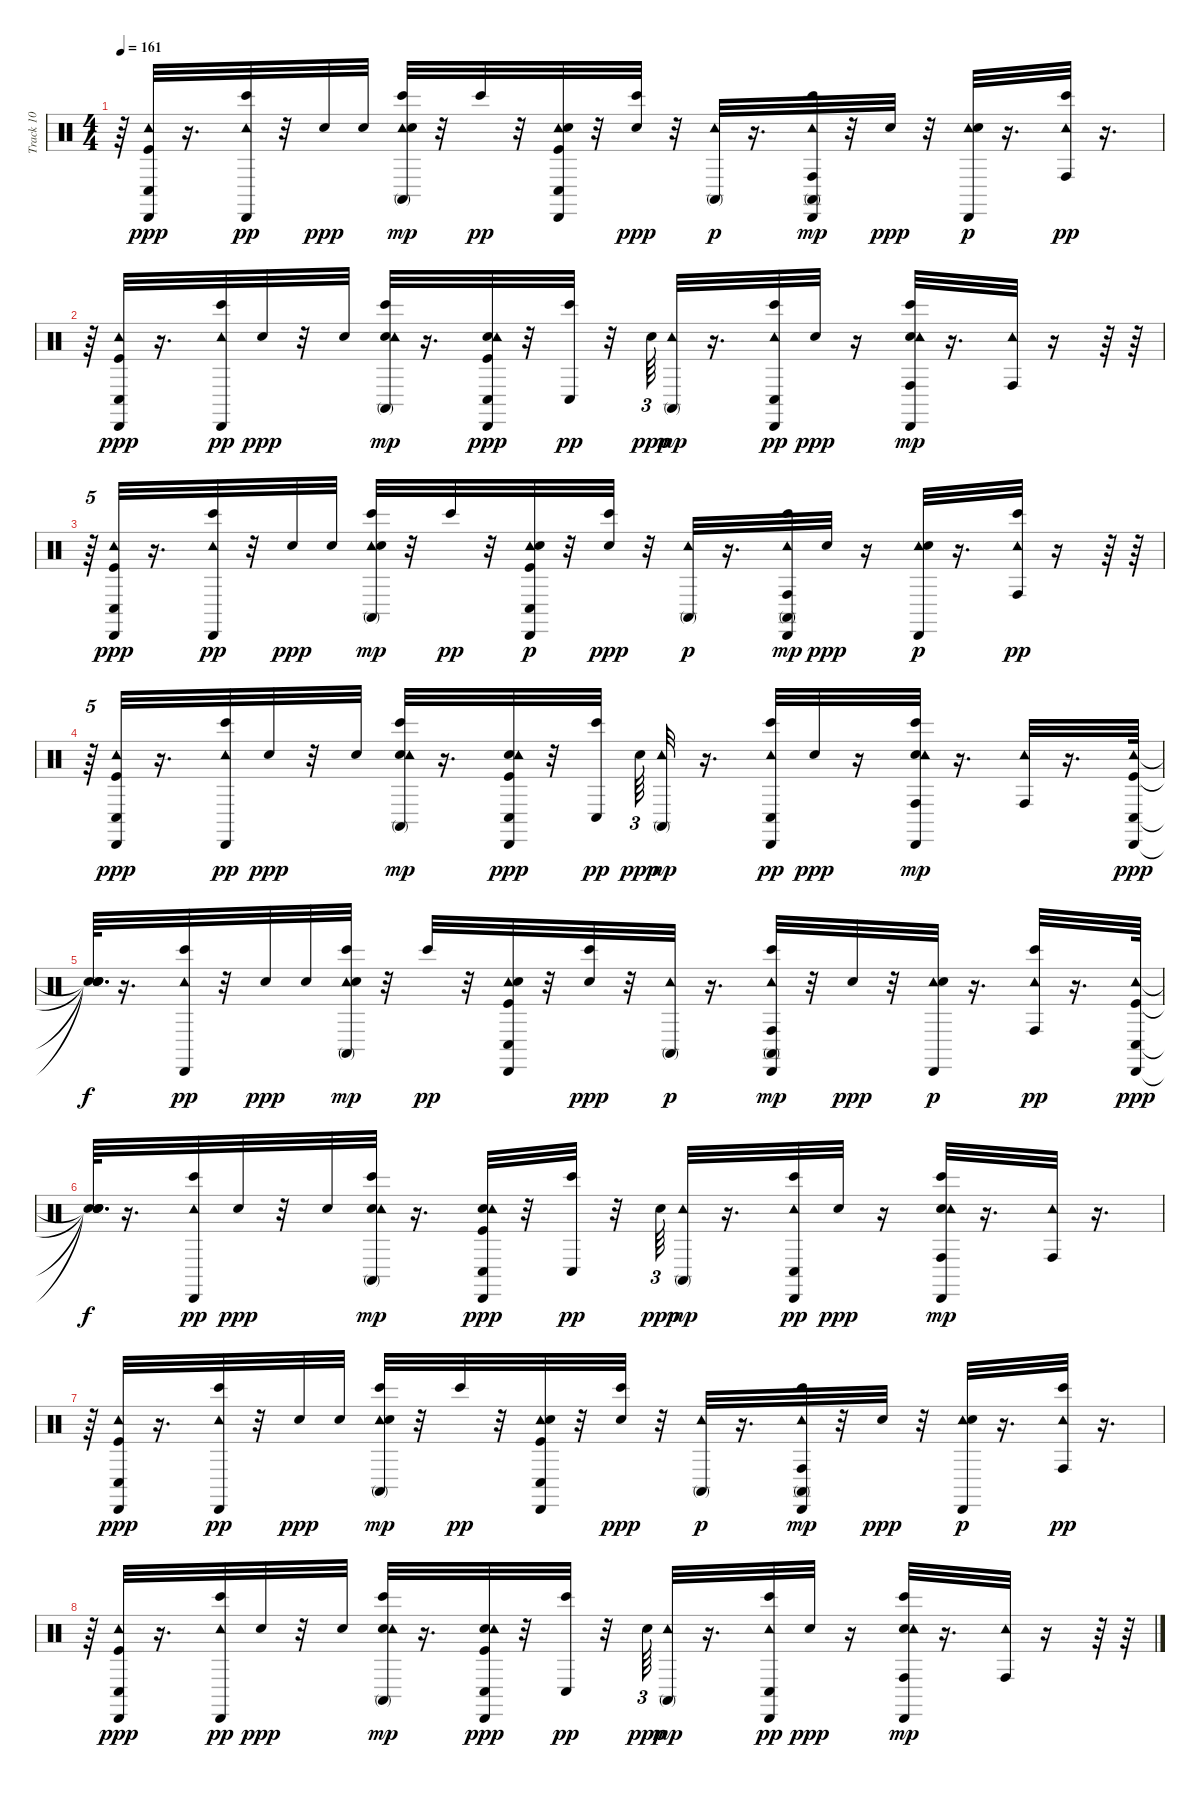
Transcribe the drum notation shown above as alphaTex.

\track ("Track 10" "Track 10") {instrument percussion}
\staff {score}
\articulation defaults
\ts (4 4)
\tempo 161
\clef neutral
\ks c
r.64{dy mp} ("Kick (hit)" "Tambourine (hit)" "Cabasa (hit)" "Conga low (hit)").32{dy ppp} r.16{d} ("Tambourine (hit)" "Cabasa (hit)" "Bongo High (hit)").32{dy pp} r.32 "Electric Snare (hit)".32{dy ppp} "Electric Snare (hit)".32 ("Tambourine (hit)" "Bongo High (hit)" "Conga high (mute)" "Electric Snare (hit)").32{dy mp} r.32 "Bongo High (hit)".32{dy pp} r.32 ("Tambourine (hit)" "Conga low (hit)" "Cabasa (hit)" "Kick (hit)" "Electric Snare (hit)").32 r.32 ("Bongo High (hit)" "Electric Snare (hit)").32{dy ppp} r.32 ("Tambourine (hit)" "Conga high (mute)").32{dy p} r.16{d} ("Tambourine (hit)" "Cabasa (hit)" "Bongo High (hit)" "Conga high (mute)" "Conga high (hit)").32{dy mp} r.32 "Electric Snare (hit)".32{dy ppp} r.32 ("Tambourine (hit)" "Cabasa (hit)" "Electric Snare (hit)").32{dy p} r.16{d} ("Tambourine (hit)" "Conga high (hit)" "Bongo High (hit)").32{dy pp} r.16{d} |
r.64 ("Kick (hit)" "Tambourine (hit)" "Cabasa (hit)" "Conga low (hit)").32{dy ppp} r.16{d} ("Tambourine (hit)" "Cabasa (hit)" "Bongo High (hit)").32{dy pp} "Electric Snare (hit)".32{dy ppp} r.32 "Electric Snare (hit)".32 ("Electric Snare (hit)" "Tambourine (hit)" "Bongo High (hit)" "Conga high (mute)").32{dy mp} r.16{d} ("Kick (hit)" "Electric Snare (hit)" "Tambourine (hit)" "Cabasa (hit)" "Conga low (hit)").32{dy ppp} r.32 ("Bongo High (hit)" "Conga low (hit)").32{dy pp} r.32 "Electric Snare (hit)".64{tu (3 2) dy ppp} ("Tambourine (hit)" "Conga high (mute)").32{dy mp} r.16{d} ("Bongo High (hit)" "Tambourine (hit)" "Cabasa (hit)" "Conga low (hit)").32{dy pp} "Electric Snare (hit)".32{dy ppp} r.16 ("Electric Snare (hit)" "Bongo High (hit)" "Tambourine (hit)" "Cabasa (hit)" "Conga high (hit)").32{dy mp} r.16{d} ("Tambourine (hit)" "Conga high (hit)").32 r.16 r.64 r.64 |
r.64{tu (5 4)} ("Kick (hit)" "Tambourine (hit)" "Cabasa (hit)" "Conga low (hit)").32{dy ppp} r.16{d} ("Tambourine (hit)" "Cabasa (hit)" "Bongo High (hit)").32{dy pp} r.32 "Electric Snare (hit)".32{dy ppp} "Electric Snare (hit)".32 ("Tambourine (hit)" "Bongo High (hit)" "Conga high (mute)" "Electric Snare (hit)").32{dy mp} r.32 "Bongo High (hit)".32{dy pp} r.32 ("Tambourine (hit)" "Conga low (hit)" "Cabasa (hit)" "Electric Snare (hit)" "Kick (hit)").32{dy p} r.32 ("Bongo High (hit)" "Electric Snare (hit)").32{dy ppp} r.32 ("Tambourine (hit)" "Conga high (mute)").32{dy p} r.16{d} ("Tambourine (hit)" "Cabasa (hit)" "Bongo High (hit)" "Conga high (mute)" "Conga high (hit)").32{dy mp} "Electric Snare (hit)".32{dy ppp} r.16 ("Tambourine (hit)" "Cabasa (hit)" "Electric Snare (hit)").32{dy p} r.16{d} ("Tambourine (hit)" "Conga high (hit)" "Bongo High (hit)").32{dy pp} r.16 r.64 r.64 |
r.64{tu (5 4)} ("Kick (hit)" "Tambourine (hit)" "Cabasa (hit)" "Conga low (hit)").32{dy ppp} r.16{d} ("Tambourine (hit)" "Cabasa (hit)" "Bongo High (hit)").32{dy pp} "Electric Snare (hit)".32{dy ppp} r.32 "Electric Snare (hit)".32 ("Electric Snare (hit)" "Tambourine (hit)" "Bongo High (hit)" "Conga high (mute)").32{dy mp} r.16{d} ("Kick (hit)" "Electric Snare (hit)" "Tambourine (hit)" "Cabasa (hit)" "Conga low (hit)").32{dy ppp} r.32 ("Bongo High (hit)" "Conga low (hit)").32{dy pp beam splitsecondary} "Electric Snare (hit)".64{tu (3 2) dy ppp} ("Tambourine (hit)" "Conga high (mute)").32{dy mp} r.16{d} ("Bongo High (hit)" "Tambourine (hit)" "Cabasa (hit)" "Conga low (hit)").32{dy pp} "Electric Snare (hit)".32{dy ppp} r.16 ("Electric Snare (hit)" "Bongo High (hit)" "Tambourine (hit)" "Cabasa (hit)" "Conga high (hit)").32{dy mp} r.16{d} ("Tambourine (hit)" "Conga high (hit)").32 r.16{d} ("Kick (hit)" "Tambourine (hit)" "Cabasa (hit)" "Conga low (hit)").64{dy ppp} |
("Snare (hit)"{t} "Snare (hit)"{t} "Snare (hit)"{t} "Snare (hit)"{t}).64{d dy f} r.16{d} ("Tambourine (hit)" "Cabasa (hit)" "Bongo High (hit)").32{dy pp} r.32 "Electric Snare (hit)".32{dy ppp} "Electric Snare (hit)".32 ("Tambourine (hit)" "Bongo High (hit)" "Conga high (mute)" "Electric Snare (hit)").32{dy mp} r.32 "Bongo High (hit)".32{dy pp} r.32 ("Tambourine (hit)" "Conga low (hit)" "Cabasa (hit)" "Kick (hit)" "Electric Snare (hit)").32 r.32 ("Bongo High (hit)" "Electric Snare (hit)").32{dy ppp} r.32 ("Tambourine (hit)" "Conga high (mute)").32{dy p} r.16{d} ("Tambourine (hit)" "Cabasa (hit)" "Bongo High (hit)" "Conga high (mute)" "Conga high (hit)").32{dy mp} r.32 "Electric Snare (hit)".32{dy ppp} r.32 ("Tambourine (hit)" "Cabasa (hit)" "Electric Snare (hit)").32{dy p} r.16{d} ("Tambourine (hit)" "Conga high (hit)" "Bongo High (hit)").32{dy pp} r.16{d} ("Kick (hit)" "Tambourine (hit)" "Cabasa (hit)" "Conga low (hit)").64{dy ppp} |
("Snare (hit)"{t} "Snare (hit)"{t} "Snare (hit)"{t} "Snare (hit)"{t}).64{d dy f} r.16{d} ("Tambourine (hit)" "Cabasa (hit)" "Bongo High (hit)").32{dy pp} "Electric Snare (hit)".32{dy ppp} r.32 "Electric Snare (hit)".32 ("Electric Snare (hit)" "Tambourine (hit)" "Bongo High (hit)" "Conga high (mute)").32{dy mp} r.16{d} ("Kick (hit)" "Electric Snare (hit)" "Tambourine (hit)" "Cabasa (hit)" "Conga low (hit)").32{dy ppp} r.32 ("Bongo High (hit)" "Conga low (hit)").32{dy pp} r.32 "Electric Snare (hit)".64{tu (3 2) dy ppp} ("Tambourine (hit)" "Conga high (mute)").32{dy mp} r.16{d} ("Bongo High (hit)" "Tambourine (hit)" "Cabasa (hit)" "Conga low (hit)").32{dy pp} "Electric Snare (hit)".32{dy ppp} r.16 ("Electric Snare (hit)" "Bongo High (hit)" "Tambourine (hit)" "Cabasa (hit)" "Conga high (hit)").32{dy mp} r.16{d} ("Tambourine (hit)" "Conga high (hit)").32 r.16{d} |
r.64 ("Kick (hit)" "Tambourine (hit)" "Cabasa (hit)" "Conga low (hit)").32{dy ppp} r.16{d} ("Tambourine (hit)" "Cabasa (hit)" "Bongo High (hit)").32{dy pp} r.32 "Electric Snare (hit)".32{dy ppp} "Electric Snare (hit)".32 ("Tambourine (hit)" "Bongo High (hit)" "Conga high (mute)" "Electric Snare (hit)").32{dy mp} r.32 "Bongo High (hit)".32{dy pp} r.32 ("Tambourine (hit)" "Conga low (hit)" "Cabasa (hit)" "Kick (hit)" "Electric Snare (hit)").32 r.32 ("Bongo High (hit)" "Electric Snare (hit)").32{dy ppp} r.32 ("Tambourine (hit)" "Conga high (mute)").32{dy p} r.16{d} ("Tambourine (hit)" "Cabasa (hit)" "Bongo High (hit)" "Conga high (mute)" "Conga high (hit)").32{dy mp} r.32 "Electric Snare (hit)".32{dy ppp} r.32 ("Tambourine (hit)" "Cabasa (hit)" "Electric Snare (hit)").32{dy p} r.16{d} ("Tambourine (hit)" "Conga high (hit)" "Bongo High (hit)").32{dy pp} r.16{d} |
r.64 ("Kick (hit)" "Tambourine (hit)" "Cabasa (hit)" "Conga low (hit)").32{dy ppp} r.16{d} ("Tambourine (hit)" "Cabasa (hit)" "Bongo High (hit)").32{dy pp} "Electric Snare (hit)".32{dy ppp} r.32 "Electric Snare (hit)".32 ("Electric Snare (hit)" "Tambourine (hit)" "Bongo High (hit)" "Conga high (mute)").32{dy mp} r.16{d} ("Kick (hit)" "Electric Snare (hit)" "Tambourine (hit)" "Cabasa (hit)" "Conga low (hit)").32{dy ppp} r.32 ("Bongo High (hit)" "Conga low (hit)").32{dy pp} r.32 "Electric Snare (hit)".64{tu (3 2) dy ppp} ("Tambourine (hit)" "Conga high (mute)").32{dy mp} r.16{d} ("Bongo High (hit)" "Tambourine (hit)" "Cabasa (hit)" "Conga low (hit)").32{dy pp} "Electric Snare (hit)".32{dy ppp} r.16 ("Electric Snare (hit)" "Bongo High (hit)" "Tambourine (hit)" "Cabasa (hit)" "Conga high (hit)").32{dy mp} r.16{d} ("Tambourine (hit)" "Conga high (hit)").32 r.16 r.64 r.64
